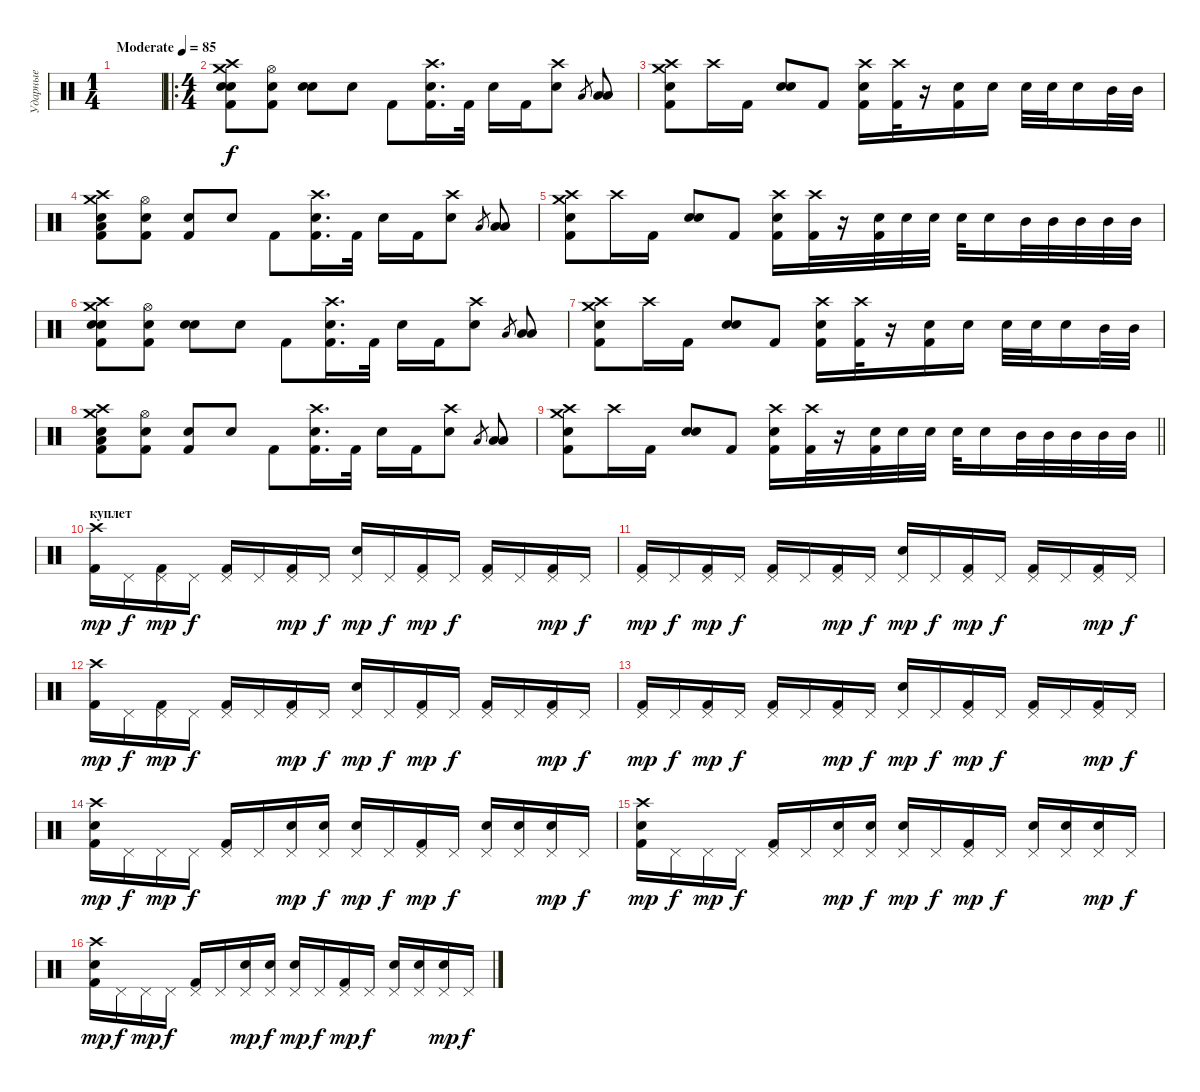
\track ("Ударные" "Ударные") {instrument percussion}
\staff {score}
\articulation defaults
\ts (1 4)
\tempo (85 "Moderate")
\clef neutral
\ks c
|
\ro
\ts (4 4)
("Crash high (hit)" "Electric Snare (hit)" "Crash medium (hit)" "Snare (hit) 2" "Kick (hit) 2").8 ("Hi-Hat (open)" "Electric Snare (hit)" "Kick (hit) 2").8 ("Electric Snare (hit)" "Snare (hit) 2").8 "Electric Snare (hit)".8 "Kick (hit) 2".8 ("Crash high (hit)" "Snare (hit) 2" "Kick (hit) 2").16{d} "Kick (hit) 2".32 "Snare (hit) 2".16 "Kick (hit) 2".16 ("Crash high (hit)" "Electric Snare (hit)").8 "Low Tom (hit)".8{gr} ("Low Tom (hit)" "Low Tom (hit)").8 |
("Crash high (hit)" "Electric Snare (hit)" "Crash medium (hit)" "Kick (hit) 2").8 "Crash high (hit)".16 "Kick (hit) 2".16 ("Snare (hit) 2" "Electric Snare (hit)").8 "Kick (hit) 2".8 ("Crash high (hit)" "Snare (hit) 2" "Kick (hit) 2").16 ("Crash high (hit)" "Kick (hit) 2").32 r.16 ("Snare (hit) 2" "Kick (hit) 2").16 "Electric Snare (hit)".16 "Electric Snare (hit)".32 "Electric Snare (hit)".32 "Electric Snare (hit)".16 "Mid Tom (hit)".32 "Mid Tom (hit)".32 |
("Crash high (hit)" "Electric Snare (hit)" "Low Tom (hit)" "Crash medium (hit)" "Kick (hit) 2").8 ("Hi-Hat (open)" "Electric Snare (hit)" "Kick (hit) 2").8 ("Snare (hit) 2" "Kick (hit) 2").8 "Electric Snare (hit)".8 "Kick (hit) 2".8 ("Crash high (hit)" "Snare (hit) 2" "Kick (hit) 2").16{d} "Kick (hit) 2".32 "Snare (hit) 2".16 "Kick (hit) 2".16 ("Crash high (hit)" "Electric Snare (hit)").8 "Low Tom (hit)".8{gr} ("Low Tom (hit)" "Low Tom (hit)").8 |
("Crash high (hit)" "Electric Snare (hit)" "Crash medium (hit)" "Kick (hit) 2").8 "Crash high (hit)".16 "Kick (hit) 2".16 ("Snare (hit) 2" "Electric Snare (hit)").8 "Kick (hit) 2".8 ("Crash high (hit)" "Snare (hit) 2" "Kick (hit) 2").16 ("Crash high (hit)" "Kick (hit) 2").32 r.16 ("Snare (hit) 2" "Kick (hit) 2").32 "Electric Snare (hit)".32 "Electric Snare (hit)".32 "Electric Snare (hit)".32 "Electric Snare (hit)".16 "Mid Tom (hit)".32 "Mid Tom (hit)".32 "Mid Tom (hit)".32 "Mid Tom (hit)".32 "Mid Tom (hit)".32 |
("Crash high (hit)" "Electric Snare (hit)" "Crash medium (hit)" "Snare (hit) 2" "Kick (hit) 2").8 ("Hi-Hat (open)" "Electric Snare (hit)" "Kick (hit) 2").8 ("Electric Snare (hit)" "Snare (hit) 2").8 "Electric Snare (hit)".8 "Kick (hit) 2".8 ("Crash high (hit)" "Snare (hit) 2" "Kick (hit) 2").16{d} "Kick (hit) 2".32 "Snare (hit) 2".16 "Kick (hit) 2".16 ("Crash high (hit)" "Electric Snare (hit)").8 "Low Tom (hit)".8{gr} ("Low Tom (hit)" "Low Tom (hit)").8 |
("Crash high (hit)" "Electric Snare (hit)" "Crash medium (hit)" "Kick (hit) 2").8 "Crash high (hit)".16 "Kick (hit) 2".16 ("Snare (hit) 2" "Electric Snare (hit)").8 "Kick (hit) 2".8 ("Crash high (hit)" "Snare (hit) 2" "Kick (hit) 2").16 ("Crash high (hit)" "Kick (hit) 2").32 r.16 ("Snare (hit) 2" "Kick (hit) 2").16 "Electric Snare (hit)".16 "Electric Snare (hit)".32 "Electric Snare (hit)".32 "Electric Snare (hit)".16 "Mid Tom (hit)".32 "Mid Tom (hit)".32 |
("Crash high (hit)" "Electric Snare (hit)" "Low Tom (hit)" "Crash medium (hit)" "Kick (hit) 2").8 ("Hi-Hat (open)" "Electric Snare (hit)" "Kick (hit) 2").8 ("Snare (hit) 2" "Kick (hit) 2").8 "Electric Snare (hit)".8 "Kick (hit) 2".8 ("Crash high (hit)" "Snare (hit) 2" "Kick (hit) 2").16{d} "Kick (hit) 2".32 "Snare (hit) 2".16 "Kick (hit) 2".16 ("Crash high (hit)" "Electric Snare (hit)").8 "Low Tom (hit)".8{gr} ("Low Tom (hit)" "Low Tom (hit)").8 |
\barLineRight lightlight
("Crash high (hit)" "Electric Snare (hit)" "Crash medium (hit)" "Kick (hit) 2").8 "Crash high (hit)".16 "Kick (hit) 2".16 ("Snare (hit) 2" "Electric Snare (hit)").8 "Kick (hit) 2".8 ("Crash high (hit)" "Snare (hit) 2" "Kick (hit) 2").16 ("Crash high (hit)" "Kick (hit) 2").32 r.16 ("Snare (hit) 2" "Kick (hit) 2").32 "Electric Snare (hit)".32 "Electric Snare (hit)".32 "Electric Snare (hit)".32 "Electric Snare (hit)".16 "Mid Tom (hit)".32 "Mid Tom (hit)".32 "Mid Tom (hit)".32 "Mid Tom (hit)".32 "Mid Tom (hit)".32 |
\section ("" "куплет")
("Crash high (hit)" "Kick (hit) 2").16{dy mp} "Pedal Hi-Hat (hit)".16{dy f} ("Pedal Hi-Hat (hit)" "Kick (hit) 2").16{dy mp} "Pedal Hi-Hat (hit)".16{dy f} ("Pedal Hi-Hat (hit)" "Kick (hit) 2").16 "Pedal Hi-Hat (hit)".16 ("Pedal Hi-Hat (hit)" "Kick (hit) 2").16{dy mp} "Pedal Hi-Hat (hit)".16{dy f} ("Pedal Hi-Hat (hit)" "Electric Snare (hit)").16{dy mp} "Pedal Hi-Hat (hit)".16{dy f} ("Pedal Hi-Hat (hit)" "Kick (hit) 2").16{dy mp} "Pedal Hi-Hat (hit)".16{dy f} ("Pedal Hi-Hat (hit)" "Kick (hit) 2").16 "Pedal Hi-Hat (hit)".16 ("Pedal Hi-Hat (hit)" "Kick (hit) 2").16{dy mp} "Pedal Hi-Hat (hit)".16{dy f} |
("Pedal Hi-Hat (hit)" "Kick (hit) 2").16{dy mp} "Pedal Hi-Hat (hit)".16{dy f} ("Pedal Hi-Hat (hit)" "Kick (hit) 2").16{dy mp} "Pedal Hi-Hat (hit)".16{dy f} ("Pedal Hi-Hat (hit)" "Kick (hit) 2").16 "Pedal Hi-Hat (hit)".16 ("Pedal Hi-Hat (hit)" "Kick (hit) 2").16{dy mp} "Pedal Hi-Hat (hit)".16{dy f} ("Pedal Hi-Hat (hit)" "Electric Snare (hit)").16{dy mp} "Pedal Hi-Hat (hit)".16{dy f} ("Pedal Hi-Hat (hit)" "Kick (hit) 2").16{dy mp} "Pedal Hi-Hat (hit)".16{dy f} ("Pedal Hi-Hat (hit)" "Kick (hit) 2").16 "Pedal Hi-Hat (hit)".16 ("Pedal Hi-Hat (hit)" "Kick (hit) 2").16{dy mp} "Pedal Hi-Hat (hit)".16{dy f} |
("Crash high (hit)" "Kick (hit) 2").16{dy mp} "Pedal Hi-Hat (hit)".16{dy f} ("Pedal Hi-Hat (hit)" "Kick (hit) 2").16{dy mp} "Pedal Hi-Hat (hit)".16{dy f} ("Pedal Hi-Hat (hit)" "Kick (hit) 2").16 "Pedal Hi-Hat (hit)".16 ("Pedal Hi-Hat (hit)" "Kick (hit) 2").16{dy mp} "Pedal Hi-Hat (hit)".16{dy f} ("Pedal Hi-Hat (hit)" "Electric Snare (hit)").16{dy mp} "Pedal Hi-Hat (hit)".16{dy f} ("Pedal Hi-Hat (hit)" "Kick (hit) 2").16{dy mp} "Pedal Hi-Hat (hit)".16{dy f} ("Pedal Hi-Hat (hit)" "Kick (hit) 2").16 "Pedal Hi-Hat (hit)".16 ("Pedal Hi-Hat (hit)" "Kick (hit) 2").16{dy mp} "Pedal Hi-Hat (hit)".16{dy f} |
("Pedal Hi-Hat (hit)" "Kick (hit) 2").16{dy mp} "Pedal Hi-Hat (hit)".16{dy f} ("Pedal Hi-Hat (hit)" "Kick (hit) 2").16{dy mp} "Pedal Hi-Hat (hit)".16{dy f} ("Pedal Hi-Hat (hit)" "Kick (hit) 2").16 "Pedal Hi-Hat (hit)".16 ("Pedal Hi-Hat (hit)" "Kick (hit) 2").16{dy mp} "Pedal Hi-Hat (hit)".16{dy f} ("Pedal Hi-Hat (hit)" "Electric Snare (hit)").16{dy mp} "Pedal Hi-Hat (hit)".16{dy f} ("Pedal Hi-Hat (hit)" "Kick (hit) 2").16{dy mp} "Pedal Hi-Hat (hit)".16{dy f} ("Pedal Hi-Hat (hit)" "Kick (hit) 2").16 "Pedal Hi-Hat (hit)".16 ("Pedal Hi-Hat (hit)" "Kick (hit) 2").16{dy mp} "Pedal Hi-Hat (hit)".16{dy f} |
("Crash high (hit)" "Snare (hit) 2" "Kick (hit) 2").16{dy mp} "Pedal Hi-Hat (hit)".16{dy f} "Pedal Hi-Hat (hit)".16{dy mp} "Pedal Hi-Hat (hit)".16{dy f} ("Pedal Hi-Hat (hit)" "Kick (hit) 2").16 "Pedal Hi-Hat (hit)".16 ("Pedal Hi-Hat (hit)" "Snare (hit) 2").16{dy mp} ("Pedal Hi-Hat (hit)" "Snare (hit) 2").16{dy f} ("Pedal Hi-Hat (hit)" "Electric Snare (hit)").16{dy mp} "Pedal Hi-Hat (hit)".16{dy f} ("Pedal Hi-Hat (hit)" "Kick (hit) 2").16{dy mp} "Pedal Hi-Hat (hit)".16{dy f} ("Pedal Hi-Hat (hit)" "Snare (hit) 2").16 ("Pedal Hi-Hat (hit)" "Snare (hit) 2").16 ("Pedal Hi-Hat (hit)" "Electric Snare (hit)").16{dy mp} "Pedal Hi-Hat (hit)".16{dy f} |
("Crash high (hit)" "Snare (hit) 2" "Kick (hit) 2").16{dy mp} "Pedal Hi-Hat (hit)".16{dy f} "Pedal Hi-Hat (hit)".16{dy mp} "Pedal Hi-Hat (hit)".16{dy f} ("Pedal Hi-Hat (hit)" "Kick (hit) 2").16 "Pedal Hi-Hat (hit)".16 ("Pedal Hi-Hat (hit)" "Snare (hit) 2").16{dy mp} ("Pedal Hi-Hat (hit)" "Snare (hit) 2").16{dy f} ("Pedal Hi-Hat (hit)" "Electric Snare (hit)").16{dy mp} "Pedal Hi-Hat (hit)".16{dy f} ("Pedal Hi-Hat (hit)" "Kick (hit) 2").16{dy mp} "Pedal Hi-Hat (hit)".16{dy f} ("Pedal Hi-Hat (hit)" "Snare (hit) 2").16 ("Pedal Hi-Hat (hit)" "Snare (hit) 2").16 ("Pedal Hi-Hat (hit)" "Electric Snare (hit)").16{dy mp} "Pedal Hi-Hat (hit)".16{dy f} |
("Crash high (hit)" "Snare (hit) 2" "Kick (hit) 2").16{dy mp} "Pedal Hi-Hat (hit)".16{dy f} "Pedal Hi-Hat (hit)".16{dy mp} "Pedal Hi-Hat (hit)".16{dy f} ("Pedal Hi-Hat (hit)" "Kick (hit) 2").16 "Pedal Hi-Hat (hit)".16 ("Pedal Hi-Hat (hit)" "Snare (hit) 2").16{dy mp} ("Pedal Hi-Hat (hit)" "Snare (hit) 2").16{dy f} ("Pedal Hi-Hat (hit)" "Electric Snare (hit)").16{dy mp} "Pedal Hi-Hat (hit)".16{dy f} ("Pedal Hi-Hat (hit)" "Kick (hit) 2").16{dy mp} "Pedal Hi-Hat (hit)".16{dy f} ("Pedal Hi-Hat (hit)" "Snare (hit) 2").16 ("Pedal Hi-Hat (hit)" "Snare (hit) 2").16 ("Pedal Hi-Hat (hit)" "Electric Snare (hit)").16{dy mp} "Pedal Hi-Hat (hit)".16{dy f}
